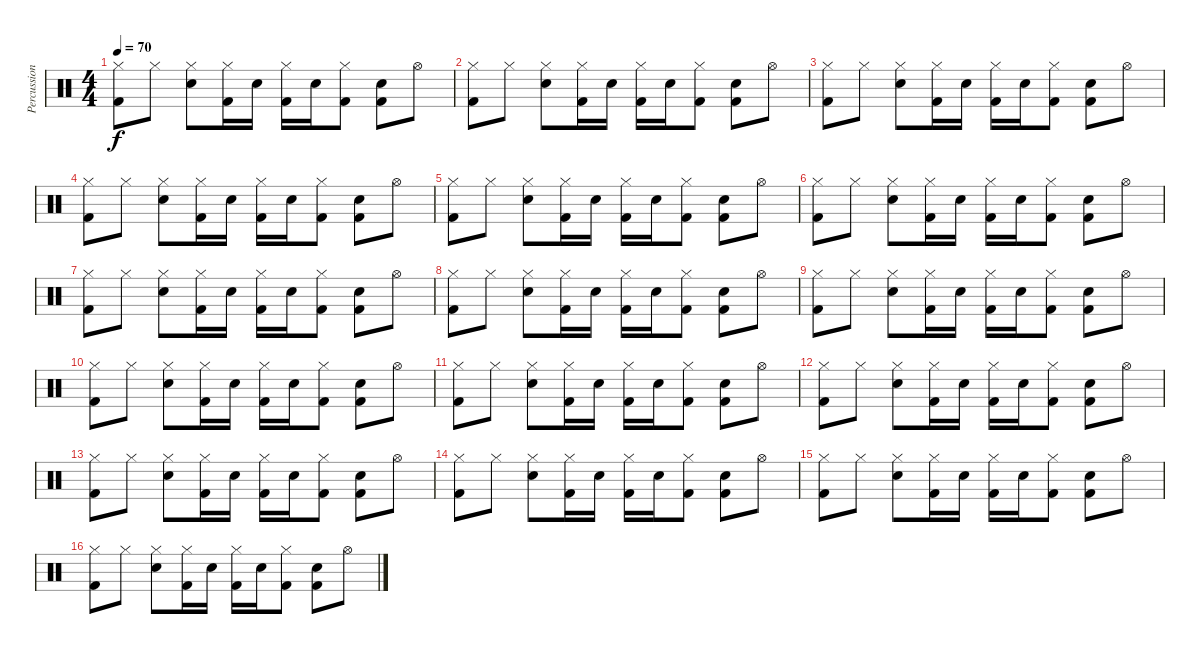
\track ("Percussion" "Percussion") {instrument percussion}
\staff {score}
\articulation defaults
\ts (4 4)
\tempo 70
\clef neutral
\ks c
("Kick (hit) 2" "Hi-Hat (closed)").8{dy f} "Hi-Hat (closed)".8 ("Hi-Hat (closed)" "Snare (hit) 2").8 ("Hi-Hat (closed)" "Kick (hit) 2").16 "Snare (hit) 2".16 ("Hi-Hat (closed)" "Kick (hit) 2").16 "Snare (hit) 2".16 ("Hi-Hat (closed)" "Kick (hit) 2").8 ("Snare (hit) 2" "Kick (hit) 2").8 "Hi-Hat (open)".8 |
("Kick (hit) 2" "Hi-Hat (closed)").8 "Hi-Hat (closed)".8 ("Hi-Hat (closed)" "Snare (hit) 2").8 ("Hi-Hat (closed)" "Kick (hit) 2").16 "Snare (hit) 2".16 ("Hi-Hat (closed)" "Kick (hit) 2").16 "Snare (hit) 2".16 ("Hi-Hat (closed)" "Kick (hit) 2").8 ("Snare (hit) 2" "Kick (hit) 2").8 "Hi-Hat (open)".8 |
("Kick (hit) 2" "Hi-Hat (closed)").8 "Hi-Hat (closed)".8 ("Hi-Hat (closed)" "Snare (hit) 2").8 ("Hi-Hat (closed)" "Kick (hit) 2").16 "Snare (hit) 2".16 ("Hi-Hat (closed)" "Kick (hit) 2").16 "Snare (hit) 2".16 ("Hi-Hat (closed)" "Kick (hit) 2").8 ("Snare (hit) 2" "Kick (hit) 2").8 "Hi-Hat (open)".8 |
("Kick (hit) 2" "Hi-Hat (closed)").8 "Hi-Hat (closed)".8 ("Hi-Hat (closed)" "Snare (hit) 2").8 ("Hi-Hat (closed)" "Kick (hit) 2").16 "Snare (hit) 2".16 ("Hi-Hat (closed)" "Kick (hit) 2").16 "Snare (hit) 2".16 ("Hi-Hat (closed)" "Kick (hit) 2").8 ("Snare (hit) 2" "Kick (hit) 2").8 "Hi-Hat (open)".8 |
("Kick (hit) 2" "Hi-Hat (closed)").8 "Hi-Hat (closed)".8 ("Hi-Hat (closed)" "Snare (hit) 2").8 ("Hi-Hat (closed)" "Kick (hit) 2").16 "Snare (hit) 2".16 ("Hi-Hat (closed)" "Kick (hit) 2").16 "Snare (hit) 2".16 ("Hi-Hat (closed)" "Kick (hit) 2").8 ("Snare (hit) 2" "Kick (hit) 2").8 "Hi-Hat (open)".8 |
("Kick (hit) 2" "Hi-Hat (closed)").8 "Hi-Hat (closed)".8 ("Hi-Hat (closed)" "Snare (hit) 2").8 ("Hi-Hat (closed)" "Kick (hit) 2").16 "Snare (hit) 2".16 ("Hi-Hat (closed)" "Kick (hit) 2").16 "Snare (hit) 2".16 ("Hi-Hat (closed)" "Kick (hit) 2").8 ("Snare (hit) 2" "Kick (hit) 2").8 "Hi-Hat (open)".8 |
("Kick (hit) 2" "Hi-Hat (closed)").8 "Hi-Hat (closed)".8 ("Hi-Hat (closed)" "Snare (hit) 2").8 ("Hi-Hat (closed)" "Kick (hit) 2").16 "Snare (hit) 2".16 ("Hi-Hat (closed)" "Kick (hit) 2").16 "Snare (hit) 2".16 ("Hi-Hat (closed)" "Kick (hit) 2").8 ("Snare (hit) 2" "Kick (hit) 2").8 "Hi-Hat (open)".8 |
("Kick (hit) 2" "Hi-Hat (closed)").8 "Hi-Hat (closed)".8 ("Hi-Hat (closed)" "Snare (hit) 2").8 ("Hi-Hat (closed)" "Kick (hit) 2").16 "Snare (hit) 2".16 ("Hi-Hat (closed)" "Kick (hit) 2").16 "Snare (hit) 2".16 ("Hi-Hat (closed)" "Kick (hit) 2").8 ("Snare (hit) 2" "Kick (hit) 2").8 "Hi-Hat (open)".8 |
("Kick (hit) 2" "Hi-Hat (closed)").8 "Hi-Hat (closed)".8 ("Hi-Hat (closed)" "Snare (hit) 2").8 ("Hi-Hat (closed)" "Kick (hit) 2").16 "Snare (hit) 2".16 ("Hi-Hat (closed)" "Kick (hit) 2").16 "Snare (hit) 2".16 ("Hi-Hat (closed)" "Kick (hit) 2").8 ("Snare (hit) 2" "Kick (hit) 2").8 "Hi-Hat (open)".8 |
("Kick (hit) 2" "Hi-Hat (closed)").8 "Hi-Hat (closed)".8 ("Hi-Hat (closed)" "Snare (hit) 2").8 ("Hi-Hat (closed)" "Kick (hit) 2").16 "Snare (hit) 2".16 ("Hi-Hat (closed)" "Kick (hit) 2").16 "Snare (hit) 2".16 ("Hi-Hat (closed)" "Kick (hit) 2").8 ("Snare (hit) 2" "Kick (hit) 2").8 "Hi-Hat (open)".8 |
("Kick (hit) 2" "Hi-Hat (closed)").8 "Hi-Hat (closed)".8 ("Hi-Hat (closed)" "Snare (hit) 2").8 ("Hi-Hat (closed)" "Kick (hit) 2").16 "Snare (hit) 2".16 ("Hi-Hat (closed)" "Kick (hit) 2").16 "Snare (hit) 2".16 ("Hi-Hat (closed)" "Kick (hit) 2").8 ("Snare (hit) 2" "Kick (hit) 2").8 "Hi-Hat (open)".8 |
("Kick (hit) 2" "Hi-Hat (closed)").8 "Hi-Hat (closed)".8 ("Hi-Hat (closed)" "Snare (hit) 2").8 ("Hi-Hat (closed)" "Kick (hit) 2").16 "Snare (hit) 2".16 ("Hi-Hat (closed)" "Kick (hit) 2").16 "Snare (hit) 2".16 ("Hi-Hat (closed)" "Kick (hit) 2").8 ("Snare (hit) 2" "Kick (hit) 2").8 "Hi-Hat (open)".8 |
("Kick (hit) 2" "Hi-Hat (closed)").8 "Hi-Hat (closed)".8 ("Hi-Hat (closed)" "Snare (hit) 2").8 ("Hi-Hat (closed)" "Kick (hit) 2").16 "Snare (hit) 2".16 ("Hi-Hat (closed)" "Kick (hit) 2").16 "Snare (hit) 2".16 ("Hi-Hat (closed)" "Kick (hit) 2").8 ("Snare (hit) 2" "Kick (hit) 2").8 "Hi-Hat (open)".8 |
("Kick (hit) 2" "Hi-Hat (closed)").8 "Hi-Hat (closed)".8 ("Hi-Hat (closed)" "Snare (hit) 2").8 ("Hi-Hat (closed)" "Kick (hit) 2").16 "Snare (hit) 2".16 ("Hi-Hat (closed)" "Kick (hit) 2").16 "Snare (hit) 2".16 ("Hi-Hat (closed)" "Kick (hit) 2").8 ("Snare (hit) 2" "Kick (hit) 2").8 "Hi-Hat (open)".8 |
("Kick (hit) 2" "Hi-Hat (closed)").8 "Hi-Hat (closed)".8 ("Hi-Hat (closed)" "Snare (hit) 2").8 ("Hi-Hat (closed)" "Kick (hit) 2").16 "Snare (hit) 2".16 ("Hi-Hat (closed)" "Kick (hit) 2").16 "Snare (hit) 2".16 ("Hi-Hat (closed)" "Kick (hit) 2").8 ("Snare (hit) 2" "Kick (hit) 2").8 "Hi-Hat (open)".8 |
("Kick (hit) 2" "Hi-Hat (closed)").8 "Hi-Hat (closed)".8 ("Hi-Hat (closed)" "Snare (hit) 2").8 ("Hi-Hat (closed)" "Kick (hit) 2").16 "Snare (hit) 2".16 ("Hi-Hat (closed)" "Kick (hit) 2").16 "Snare (hit) 2".16 ("Hi-Hat (closed)" "Kick (hit) 2").8 ("Snare (hit) 2" "Kick (hit) 2").8 "Hi-Hat (open)".8
